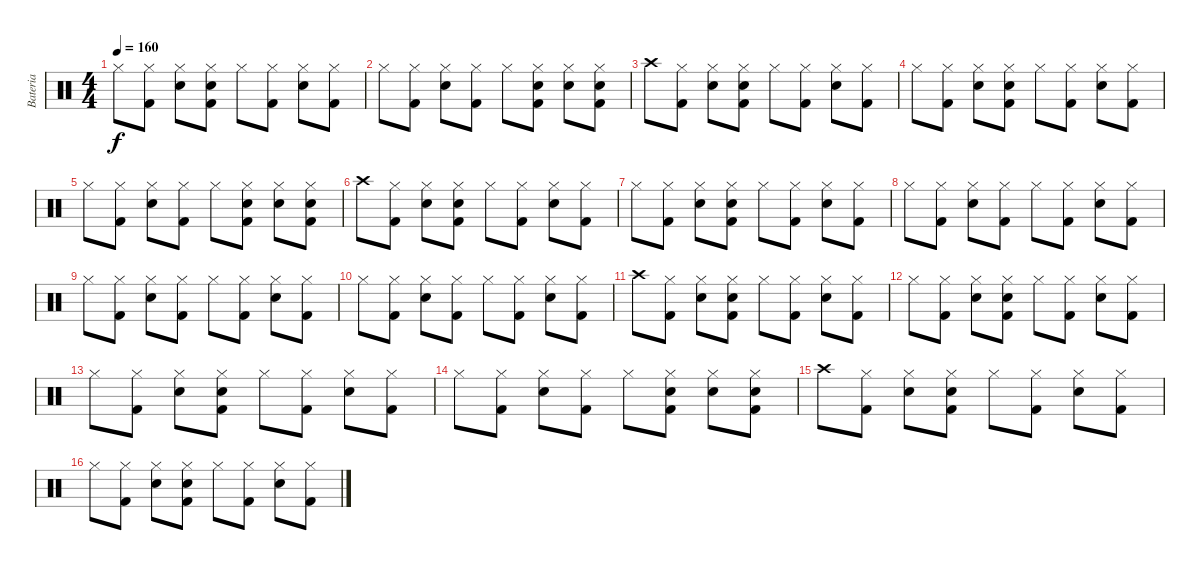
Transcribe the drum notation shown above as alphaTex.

\track ("Bateria" "Bateria") {instrument percussion}
\staff {score}
\articulation defaults
\ts (4 4)
\tempo 160
\clef neutral
\ks c "Hi-Hat (closed)".8{dy f}
("Hi-Hat (closed)" "Kick (hit) 2").8 ("Hi-Hat (closed)" "Snare (hit) 2").8 ("Hi-Hat (closed)" "Snare (hit) 2" "Kick (hit) 2").8 "Hi-Hat (closed)".8 ("Hi-Hat (closed)" "Kick (hit) 2").8 ("Hi-Hat (closed)" "Snare (hit) 2").8 ("Hi-Hat (closed)" "Kick (hit) 2").8 |
"Hi-Hat (closed)".8 ("Hi-Hat (closed)" "Kick (hit) 2").8 ("Hi-Hat (closed)" "Snare (hit) 2").8 ("Hi-Hat (closed)" "Kick (hit) 2").8 "Hi-Hat (closed)".8 ("Hi-Hat (closed)" "Snare (hit) 2" "Kick (hit) 2").8 ("Hi-Hat (closed)" "Snare (hit) 2").8 ("Hi-Hat (closed)" "Snare (hit) 2" "Kick (hit) 2").8 |
"Crash high (hit)".8 ("Hi-Hat (closed)" "Kick (hit) 2").8 ("Hi-Hat (closed)" "Snare (hit) 2").8 ("Hi-Hat (closed)" "Snare (hit) 2" "Kick (hit) 2").8 "Hi-Hat (closed)".8 ("Hi-Hat (closed)" "Kick (hit) 2").8 ("Hi-Hat (closed)" "Snare (hit) 2").8 ("Hi-Hat (closed)" "Kick (hit) 2").8 |
"Hi-Hat (closed)".8 ("Hi-Hat (closed)" "Kick (hit) 2").8 ("Hi-Hat (closed)" "Snare (hit) 2").8 ("Hi-Hat (closed)" "Snare (hit) 2" "Kick (hit) 2").8 "Hi-Hat (closed)".8 ("Hi-Hat (closed)" "Kick (hit) 2").8 ("Hi-Hat (closed)" "Snare (hit) 2").8 ("Hi-Hat (closed)" "Kick (hit) 2").8 |
"Hi-Hat (closed)".8 ("Hi-Hat (closed)" "Kick (hit) 2").8 ("Hi-Hat (closed)" "Snare (hit) 2").8 ("Hi-Hat (closed)" "Kick (hit) 2").8 "Hi-Hat (closed)".8 ("Hi-Hat (closed)" "Snare (hit) 2" "Kick (hit) 2").8 ("Hi-Hat (closed)" "Snare (hit) 2").8 ("Hi-Hat (closed)" "Snare (hit) 2" "Kick (hit) 2").8 |
"Crash high (hit)".8 ("Hi-Hat (closed)" "Kick (hit) 2").8 ("Hi-Hat (closed)" "Snare (hit) 2").8 ("Hi-Hat (closed)" "Snare (hit) 2" "Kick (hit) 2").8 "Hi-Hat (closed)".8 ("Hi-Hat (closed)" "Kick (hit) 2").8 ("Hi-Hat (closed)" "Snare (hit) 2").8 ("Hi-Hat (closed)" "Kick (hit) 2").8 |
"Hi-Hat (closed)".8 ("Hi-Hat (closed)" "Kick (hit) 2").8 ("Hi-Hat (closed)" "Snare (hit) 2").8 ("Hi-Hat (closed)" "Snare (hit) 2" "Kick (hit) 2").8 "Hi-Hat (closed)".8 ("Hi-Hat (closed)" "Kick (hit) 2").8 ("Hi-Hat (closed)" "Snare (hit) 2").8 ("Hi-Hat (closed)" "Kick (hit) 2").8 |
"Hi-Hat (closed)".8 ("Hi-Hat (closed)" "Kick (hit) 2").8 ("Hi-Hat (closed)" "Snare (hit) 2").8 ("Hi-Hat (closed)" "Kick (hit) 2").8 "Hi-Hat (closed)".8 ("Hi-Hat (closed)" "Kick (hit) 2").8 ("Hi-Hat (closed)" "Snare (hit) 2").8 ("Hi-Hat (closed)" "Kick (hit) 2").8 |
"Hi-Hat (closed)".8 ("Hi-Hat (closed)" "Kick (hit) 2").8 ("Hi-Hat (closed)" "Snare (hit) 2").8 ("Hi-Hat (closed)" "Kick (hit) 2").8 "Hi-Hat (closed)".8 ("Hi-Hat (closed)" "Kick (hit) 2").8 ("Hi-Hat (closed)" "Snare (hit) 2").8 ("Hi-Hat (closed)" "Kick (hit) 2").8 |
"Hi-Hat (closed)".8 ("Hi-Hat (closed)" "Kick (hit) 2").8 ("Hi-Hat (closed)" "Snare (hit) 2").8 ("Hi-Hat (closed)" "Kick (hit) 2").8 "Hi-Hat (closed)".8 ("Hi-Hat (closed)" "Kick (hit) 2").8 ("Hi-Hat (closed)" "Snare (hit) 2").8 ("Hi-Hat (closed)" "Kick (hit) 2").8 |
"Crash high (hit)".8 ("Hi-Hat (closed)" "Kick (hit) 2").8 ("Hi-Hat (closed)" "Snare (hit) 2").8 ("Hi-Hat (closed)" "Snare (hit) 2" "Kick (hit) 2").8 "Hi-Hat (closed)".8 ("Hi-Hat (closed)" "Kick (hit) 2").8 ("Hi-Hat (closed)" "Snare (hit) 2").8 ("Hi-Hat (closed)" "Kick (hit) 2").8 |
"Hi-Hat (closed)".8 ("Hi-Hat (closed)" "Kick (hit) 2").8 ("Hi-Hat (closed)" "Snare (hit) 2").8 ("Hi-Hat (closed)" "Snare (hit) 2" "Kick (hit) 2").8 "Hi-Hat (closed)".8 ("Hi-Hat (closed)" "Kick (hit) 2").8 ("Hi-Hat (closed)" "Snare (hit) 2").8 ("Hi-Hat (closed)" "Kick (hit) 2").8 |
"Hi-Hat (closed)".8 ("Hi-Hat (closed)" "Kick (hit) 2").8 ("Hi-Hat (closed)" "Snare (hit) 2").8 ("Hi-Hat (closed)" "Snare (hit) 2" "Kick (hit) 2").8 "Hi-Hat (closed)".8 ("Hi-Hat (closed)" "Kick (hit) 2").8 ("Hi-Hat (closed)" "Snare (hit) 2").8 ("Hi-Hat (closed)" "Kick (hit) 2").8 |
"Hi-Hat (closed)".8 ("Hi-Hat (closed)" "Kick (hit) 2").8 ("Hi-Hat (closed)" "Snare (hit) 2").8 ("Hi-Hat (closed)" "Kick (hit) 2").8 "Hi-Hat (closed)".8 ("Hi-Hat (closed)" "Snare (hit) 2" "Kick (hit) 2").8 ("Hi-Hat (closed)" "Snare (hit) 2").8 ("Hi-Hat (closed)" "Snare (hit) 2" "Kick (hit) 2").8 |
"Crash high (hit)".8 ("Hi-Hat (closed)" "Kick (hit) 2").8 ("Hi-Hat (closed)" "Snare (hit) 2").8 ("Hi-Hat (closed)" "Snare (hit) 2" "Kick (hit) 2").8 "Hi-Hat (closed)".8 ("Hi-Hat (closed)" "Kick (hit) 2").8 ("Hi-Hat (closed)" "Snare (hit) 2").8 ("Hi-Hat (closed)" "Kick (hit) 2").8 |
"Hi-Hat (closed)".8 ("Hi-Hat (closed)" "Kick (hit) 2").8 ("Hi-Hat (closed)" "Snare (hit) 2").8 ("Hi-Hat (closed)" "Snare (hit) 2" "Kick (hit) 2").8 "Hi-Hat (closed)".8 ("Hi-Hat (closed)" "Kick (hit) 2").8 ("Hi-Hat (closed)" "Snare (hit) 2").8 ("Hi-Hat (closed)" "Kick (hit) 2").8
